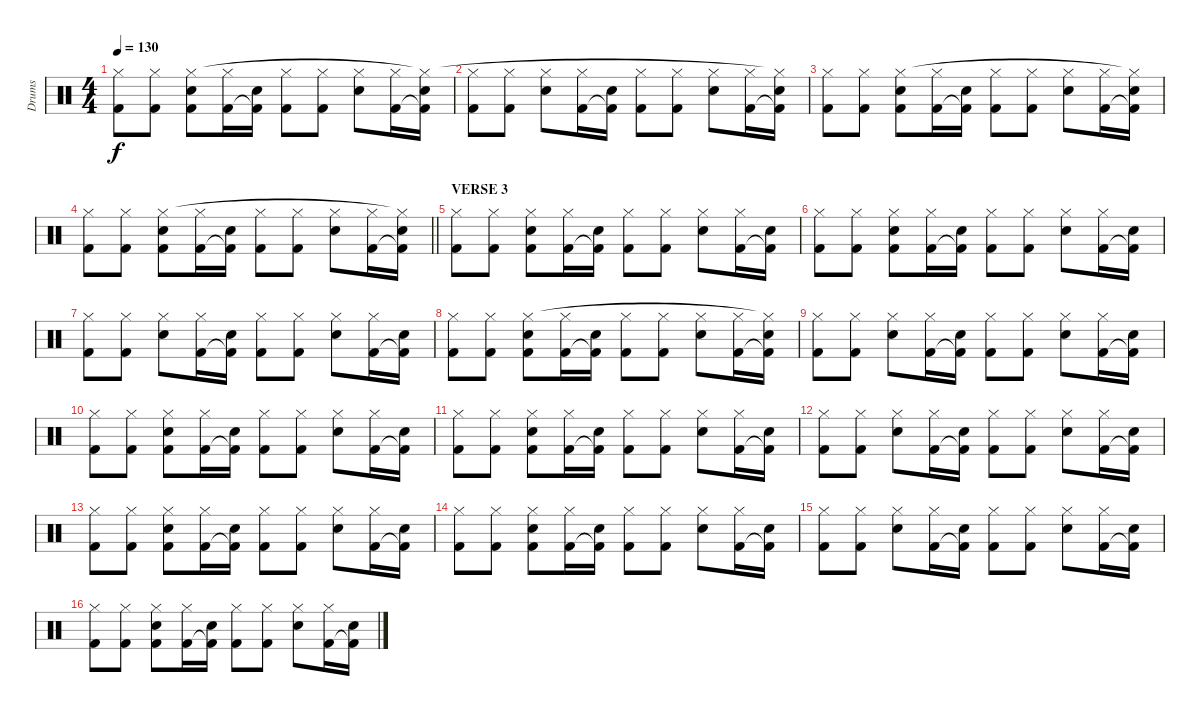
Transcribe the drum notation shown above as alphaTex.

\track ("Drums" "Drums") {instrument percussion}
\staff {score}
\articulation defaults
\ts (4 4)
\tempo 130
\clef neutral
\ks c
("Kick (hit) 2" "Hi-Hat (closed)").8{dy f} ("Kick (hit) 2" "Hi-Hat (closed)").8 ("Kick (hit) 2" "Electric Snare (hit)" "Hi-Hat (closed)").8 ("Kick (hit) 2" "Hi-Hat (closed)").16 ("Kick (hit) 2"{t} "Electric Snare (hit)").16 ("Kick (hit) 2" "Hi-Hat (closed)").8 ("Kick (hit) 2" "Hi-Hat (closed)").8 ("Electric Snare (hit)" "Hi-Hat (closed)").8 ("Kick (hit) 2" "Hi-Hat (closed)").16 ("Kick (hit) 2"{t} "Electric Snare (hit)" "Hi-Hat (closed)"{t}).16 |
("Kick (hit) 2" "Hi-Hat (closed)").8 ("Kick (hit) 2" "Hi-Hat (closed)").8 ("Electric Snare (hit)" "Hi-Hat (closed)").8 ("Kick (hit) 2" "Hi-Hat (closed)").16 ("Kick (hit) 2"{t} "Electric Snare (hit)").16 ("Kick (hit) 2" "Hi-Hat (closed)").8 ("Kick (hit) 2" "Hi-Hat (closed)").8 ("Electric Snare (hit)" "Hi-Hat (closed)").8 ("Kick (hit) 2" "Hi-Hat (closed)").16 ("Kick (hit) 2"{t} "Electric Snare (hit)" "Hi-Hat (closed)"{t}).16 |
("Kick (hit) 2" "Hi-Hat (closed)").8 ("Kick (hit) 2" "Hi-Hat (closed)").8 ("Kick (hit) 2" "Electric Snare (hit)" "Hi-Hat (closed)").8 ("Kick (hit) 2" "Hi-Hat (closed)").16 ("Kick (hit) 2"{t} "Electric Snare (hit)").16 ("Kick (hit) 2" "Hi-Hat (closed)").8 ("Kick (hit) 2" "Hi-Hat (closed)").8 ("Electric Snare (hit)" "Hi-Hat (closed)").8 ("Kick (hit) 2" "Hi-Hat (closed)").16 ("Kick (hit) 2"{t} "Electric Snare (hit)" "Hi-Hat (closed)"{t}).16 |
\barLineRight lightlight
("Kick (hit) 2" "Hi-Hat (closed)").8 ("Kick (hit) 2" "Hi-Hat (closed)").8 ("Kick (hit) 2" "Electric Snare (hit)" "Hi-Hat (closed)").8 ("Kick (hit) 2" "Hi-Hat (closed)").16 ("Kick (hit) 2"{t} "Electric Snare (hit)").16 ("Kick (hit) 2" "Hi-Hat (closed)").8 ("Kick (hit) 2" "Hi-Hat (closed)").8 ("Electric Snare (hit)" "Hi-Hat (closed)").8 ("Kick (hit) 2" "Hi-Hat (closed)").16 ("Kick (hit) 2"{t} "Electric Snare (hit)" "Hi-Hat (closed)"{t}).16 |
\section ("" "VERSE 3")
("Kick (hit) 2" "Hi-Hat (closed)").8 ("Kick (hit) 2" "Hi-Hat (closed)").8 ("Kick (hit) 2" "Electric Snare (hit)" "Hi-Hat (closed)").8 ("Kick (hit) 2" "Hi-Hat (closed)").16 ("Kick (hit) 2"{t} "Electric Snare (hit)").16 ("Kick (hit) 2" "Hi-Hat (closed)").8 ("Kick (hit) 2" "Hi-Hat (closed)").8 ("Electric Snare (hit)" "Hi-Hat (closed)").8 ("Kick (hit) 2" "Hi-Hat (closed)").16 ("Kick (hit) 2"{t} "Electric Snare (hit)").16 |
("Kick (hit) 2" "Hi-Hat (closed)").8 ("Kick (hit) 2" "Hi-Hat (closed)").8 ("Kick (hit) 2" "Electric Snare (hit)" "Hi-Hat (closed)").8 ("Kick (hit) 2" "Hi-Hat (closed)").16 ("Kick (hit) 2"{t} "Electric Snare (hit)").16 ("Kick (hit) 2" "Hi-Hat (closed)").8 ("Kick (hit) 2" "Hi-Hat (closed)").8 ("Electric Snare (hit)" "Hi-Hat (closed)").8 ("Kick (hit) 2" "Hi-Hat (closed)").16 ("Kick (hit) 2"{t} "Electric Snare (hit)").16 |
("Kick (hit) 2" "Hi-Hat (closed)").8 ("Kick (hit) 2" "Hi-Hat (closed)").8 ("Electric Snare (hit)" "Hi-Hat (closed)").8 ("Kick (hit) 2" "Hi-Hat (closed)").16 ("Kick (hit) 2"{t} "Electric Snare (hit)").16 ("Kick (hit) 2" "Hi-Hat (closed)").8 ("Kick (hit) 2" "Hi-Hat (closed)").8 ("Electric Snare (hit)" "Hi-Hat (closed)").8 ("Kick (hit) 2" "Hi-Hat (closed)").16 ("Kick (hit) 2"{t} "Electric Snare (hit)").16 |
("Kick (hit) 2" "Hi-Hat (closed)").8 ("Kick (hit) 2" "Hi-Hat (closed)").8 ("Kick (hit) 2" "Electric Snare (hit)" "Hi-Hat (closed)").8 ("Kick (hit) 2" "Hi-Hat (closed)").16 ("Kick (hit) 2"{t} "Electric Snare (hit)").16 ("Kick (hit) 2" "Hi-Hat (closed)").8 ("Kick (hit) 2" "Hi-Hat (closed)").8 ("Electric Snare (hit)" "Hi-Hat (closed)").8 ("Kick (hit) 2" "Hi-Hat (closed)").16 ("Kick (hit) 2"{t} "Electric Snare (hit)" "Hi-Hat (closed)"{t}).16 |
("Kick (hit) 2" "Hi-Hat (closed)").8 ("Kick (hit) 2" "Hi-Hat (closed)").8 ("Electric Snare (hit)" "Hi-Hat (closed)").8 ("Kick (hit) 2" "Hi-Hat (closed)").16 ("Kick (hit) 2"{t} "Electric Snare (hit)").16 ("Kick (hit) 2" "Hi-Hat (closed)").8 ("Kick (hit) 2" "Hi-Hat (closed)").8 ("Electric Snare (hit)" "Hi-Hat (closed)").8 ("Kick (hit) 2" "Hi-Hat (closed)").16 ("Kick (hit) 2"{t} "Electric Snare (hit)").16 |
("Kick (hit) 2" "Hi-Hat (closed)").8 ("Kick (hit) 2" "Hi-Hat (closed)").8 ("Kick (hit) 2" "Electric Snare (hit)" "Hi-Hat (closed)").8 ("Kick (hit) 2" "Hi-Hat (closed)").16 ("Kick (hit) 2"{t} "Electric Snare (hit)").16 ("Kick (hit) 2" "Hi-Hat (closed)").8 ("Kick (hit) 2" "Hi-Hat (closed)").8 ("Electric Snare (hit)" "Hi-Hat (closed)").8 ("Kick (hit) 2" "Hi-Hat (closed)").16 ("Kick (hit) 2"{t} "Electric Snare (hit)").16 |
("Kick (hit) 2" "Hi-Hat (closed)").8 ("Kick (hit) 2" "Hi-Hat (closed)").8 ("Kick (hit) 2" "Electric Snare (hit)" "Hi-Hat (closed)").8 ("Kick (hit) 2" "Hi-Hat (closed)").16 ("Kick (hit) 2"{t} "Electric Snare (hit)").16 ("Kick (hit) 2" "Hi-Hat (closed)").8 ("Kick (hit) 2" "Hi-Hat (closed)").8 ("Electric Snare (hit)" "Hi-Hat (closed)").8 ("Kick (hit) 2" "Hi-Hat (closed)").16 ("Kick (hit) 2"{t} "Electric Snare (hit)").16 |
("Kick (hit) 2" "Hi-Hat (closed)").8 ("Kick (hit) 2" "Hi-Hat (closed)").8 ("Electric Snare (hit)" "Hi-Hat (closed)").8 ("Kick (hit) 2" "Hi-Hat (closed)").16 ("Kick (hit) 2"{t} "Electric Snare (hit)").16 ("Kick (hit) 2" "Hi-Hat (closed)").8 ("Kick (hit) 2" "Hi-Hat (closed)").8 ("Electric Snare (hit)" "Hi-Hat (closed)").8 ("Kick (hit) 2" "Hi-Hat (closed)").16 ("Kick (hit) 2"{t} "Electric Snare (hit)").16 |
("Kick (hit) 2" "Hi-Hat (closed)").8 ("Kick (hit) 2" "Hi-Hat (closed)").8 ("Kick (hit) 2" "Electric Snare (hit)" "Hi-Hat (closed)").8 ("Kick (hit) 2" "Hi-Hat (closed)").16 ("Kick (hit) 2"{t} "Electric Snare (hit)").16 ("Kick (hit) 2" "Hi-Hat (closed)").8 ("Kick (hit) 2" "Hi-Hat (closed)").8 ("Electric Snare (hit)" "Hi-Hat (closed)").8 ("Kick (hit) 2" "Hi-Hat (closed)").16 ("Kick (hit) 2"{t} "Electric Snare (hit)").16 |
("Kick (hit) 2" "Hi-Hat (closed)").8 ("Kick (hit) 2" "Hi-Hat (closed)").8 ("Kick (hit) 2" "Electric Snare (hit)" "Hi-Hat (closed)").8 ("Kick (hit) 2" "Hi-Hat (closed)").16 ("Kick (hit) 2"{t} "Electric Snare (hit)").16 ("Kick (hit) 2" "Hi-Hat (closed)").8 ("Kick (hit) 2" "Hi-Hat (closed)").8 ("Electric Snare (hit)" "Hi-Hat (closed)").8 ("Kick (hit) 2" "Hi-Hat (closed)").16 ("Kick (hit) 2"{t} "Electric Snare (hit)").16 |
("Kick (hit) 2" "Hi-Hat (closed)").8 ("Kick (hit) 2" "Hi-Hat (closed)").8 ("Electric Snare (hit)" "Hi-Hat (closed)").8 ("Kick (hit) 2" "Hi-Hat (closed)").16 ("Kick (hit) 2"{t} "Electric Snare (hit)").16 ("Kick (hit) 2" "Hi-Hat (closed)").8 ("Kick (hit) 2" "Hi-Hat (closed)").8 ("Electric Snare (hit)" "Hi-Hat (closed)").8 ("Kick (hit) 2" "Hi-Hat (closed)").16 ("Kick (hit) 2"{t} "Electric Snare (hit)").16 |
("Kick (hit) 2" "Hi-Hat (closed)").8 ("Kick (hit) 2" "Hi-Hat (closed)").8 ("Kick (hit) 2" "Electric Snare (hit)" "Hi-Hat (closed)").8 ("Kick (hit) 2" "Hi-Hat (closed)").16 ("Kick (hit) 2"{t} "Electric Snare (hit)").16 ("Kick (hit) 2" "Hi-Hat (closed)").8 ("Kick (hit) 2" "Hi-Hat (closed)").8 ("Electric Snare (hit)" "Hi-Hat (closed)").8 ("Kick (hit) 2" "Hi-Hat (closed)").16 ("Kick (hit) 2"{t} "Electric Snare (hit)").16
